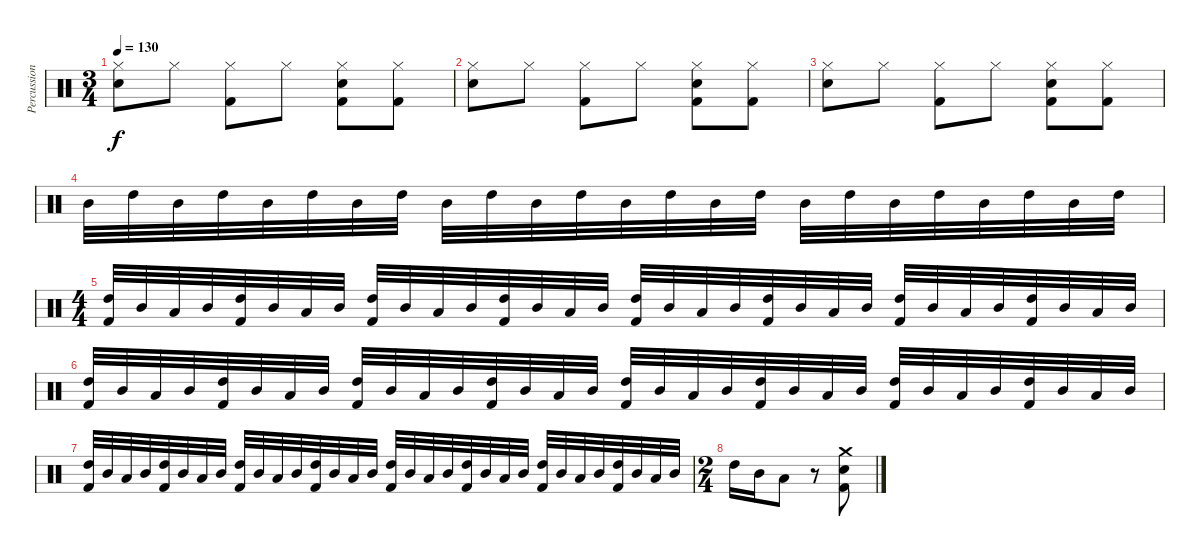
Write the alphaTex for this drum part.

\track ("Percussion" "Percussion") {instrument percussion}
\staff {score}
\articulation defaults
\ts (3 4)
\tempo 130
\clef neutral
\ks c
("Hi-Hat (closed)" "Snare (hit) 2").8{dy f} "Hi-Hat (closed)".8 ("Hi-Hat (closed)" "Kick (hit) 2").8 "Hi-Hat (closed)".8 ("Hi-Hat (closed)" "Snare (hit) 2" "Kick (hit) 2").8 ("Hi-Hat (closed)" "Kick (hit) 2").8 |
("Hi-Hat (closed)" "Snare (hit) 2").8 "Hi-Hat (closed)".8 ("Hi-Hat (closed)" "Kick (hit) 2").8 "Hi-Hat (closed)".8 ("Hi-Hat (closed)" "Snare (hit) 2" "Kick (hit) 2").8 ("Hi-Hat (closed)" "Kick (hit) 2").8 |
("Hi-Hat (closed)" "Snare (hit) 2").8 "Hi-Hat (closed)".8 ("Hi-Hat (closed)" "Kick (hit) 2").8 "Hi-Hat (closed)".8 ("Hi-Hat (closed)" "Snare (hit) 2" "Kick (hit) 2").8 ("Hi-Hat (closed)" "Kick (hit) 2").8 |
"Mid Tom (hit)".32 "High Tom (hit)".32 "Mid Tom (hit)".32 "High Tom (hit)".32 "Mid Tom (hit)".32 "High Tom (hit)".32 "Mid Tom (hit)".32 "High Tom (hit)".32 "Mid Tom (hit)".32 "High Tom (hit)".32 "Mid Tom (hit)".32 "High Tom (hit)".32 "Mid Tom (hit)".32 "High Tom (hit)".32 "Mid Tom (hit)".32 "High Tom (hit)".32 "Mid Tom (hit)".32 "High Tom (hit)".32 "Mid Tom (hit)".32 "High Tom (hit)".32 "Mid Tom (hit)".32 "High Tom (hit)".32 "Mid Tom (hit)".32 "High Tom (hit)".32 |
\ts (4 4)
("High Tom (hit)" "Kick (hit) 2").32 "Mid Tom (hit)".32 "Low Tom (hit)".32 "Mid Tom (hit)".32 ("High Tom (hit)" "Kick (hit) 2").32 "Mid Tom (hit)".32 "Low Tom (hit)".32 "Mid Tom (hit)".32 ("High Tom (hit)" "Kick (hit) 2").32 "Mid Tom (hit)".32 "Low Tom (hit)".32 "Mid Tom (hit)".32 ("High Tom (hit)" "Kick (hit) 2").32 "Mid Tom (hit)".32 "Low Tom (hit)".32 "Mid Tom (hit)".32 ("High Tom (hit)" "Kick (hit) 2").32 "Mid Tom (hit)".32 "Low Tom (hit)".32 "Mid Tom (hit)".32 ("High Tom (hit)" "Kick (hit) 2").32 "Mid Tom (hit)".32 "Low Tom (hit)".32 "Mid Tom (hit)".32 ("High Tom (hit)" "Kick (hit) 2").32 "Mid Tom (hit)".32 "Low Tom (hit)".32 "Mid Tom (hit)".32 ("High Tom (hit)" "Kick (hit) 2").32 "Mid Tom (hit)".32 "Low Tom (hit)".32 "Mid Tom (hit)".32 |
("High Tom (hit)" "Kick (hit) 2").32 "Mid Tom (hit)".32 "Low Tom (hit)".32 "Mid Tom (hit)".32 ("High Tom (hit)" "Kick (hit) 2").32 "Mid Tom (hit)".32 "Low Tom (hit)".32 "Mid Tom (hit)".32 ("High Tom (hit)" "Kick (hit) 2").32 "Mid Tom (hit)".32 "Low Tom (hit)".32 "Mid Tom (hit)".32 ("High Tom (hit)" "Kick (hit) 2").32 "Mid Tom (hit)".32 "Low Tom (hit)".32 "Mid Tom (hit)".32 ("High Tom (hit)" "Kick (hit) 2").32 "Mid Tom (hit)".32 "Low Tom (hit)".32 "Mid Tom (hit)".32 ("High Tom (hit)" "Kick (hit) 2").32 "Mid Tom (hit)".32 "Low Tom (hit)".32 "Mid Tom (hit)".32 ("High Tom (hit)" "Kick (hit) 2").32 "Mid Tom (hit)".32 "Low Tom (hit)".32 "Mid Tom (hit)".32 ("High Tom (hit)" "Kick (hit) 2").32 "Mid Tom (hit)".32 "Low Tom (hit)".32 "Mid Tom (hit)".32 |
("High Tom (hit)" "Kick (hit) 2").32 "Mid Tom (hit)".32 "Low Tom (hit)".32 "Mid Tom (hit)".32 ("High Tom (hit)" "Kick (hit) 2").32 "Mid Tom (hit)".32 "Low Tom (hit)".32 "Mid Tom (hit)".32 ("High Tom (hit)" "Kick (hit) 2").32 "Mid Tom (hit)".32 "Low Tom (hit)".32 "Mid Tom (hit)".32 ("High Tom (hit)" "Kick (hit) 2").32 "Mid Tom (hit)".32 "Low Tom (hit)".32 "Mid Tom (hit)".32 ("High Tom (hit)" "Kick (hit) 2").32 "Mid Tom (hit)".32 "Low Tom (hit)".32 "Mid Tom (hit)".32 ("High Tom (hit)" "Kick (hit) 2").32 "Mid Tom (hit)".32 "Low Tom (hit)".32 "Mid Tom (hit)".32 ("High Tom (hit)" "Kick (hit) 2").32 "Mid Tom (hit)".32 "Low Tom (hit)".32 "Mid Tom (hit)".32 ("High Tom (hit)" "Kick (hit) 2").32 "Mid Tom (hit)".32 "Low Tom (hit)".32 "Mid Tom (hit)".32 |
\ts (2 4)
"High Tom (hit)".16 "Mid Tom (hit)".16 "Low Tom (hit)".8 r.8 ("Crash medium (hit)" "Snare (hit) 2" "Kick (hit) 2").8
